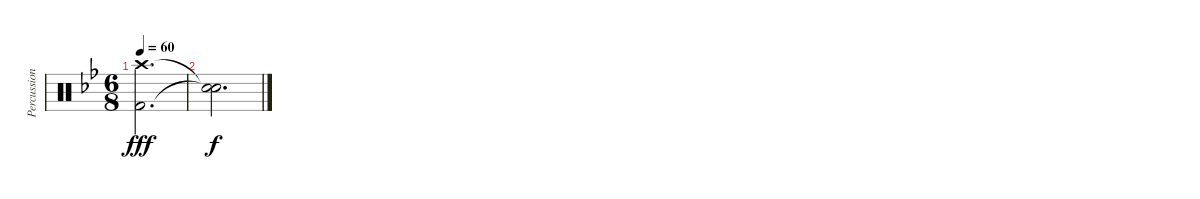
\track ("Percussion" "Percussion") {instrument percussion}
\staff {score}
\articulation defaults
\ts (6 8)
\tempo 60
\clef neutral
\ks gminor
("Crash high (hit)" "Kick (hit) 2").2{d dy fff} |
("Snare (hit)"{t} "Snare (hit)"{t}).2{d dy f}
